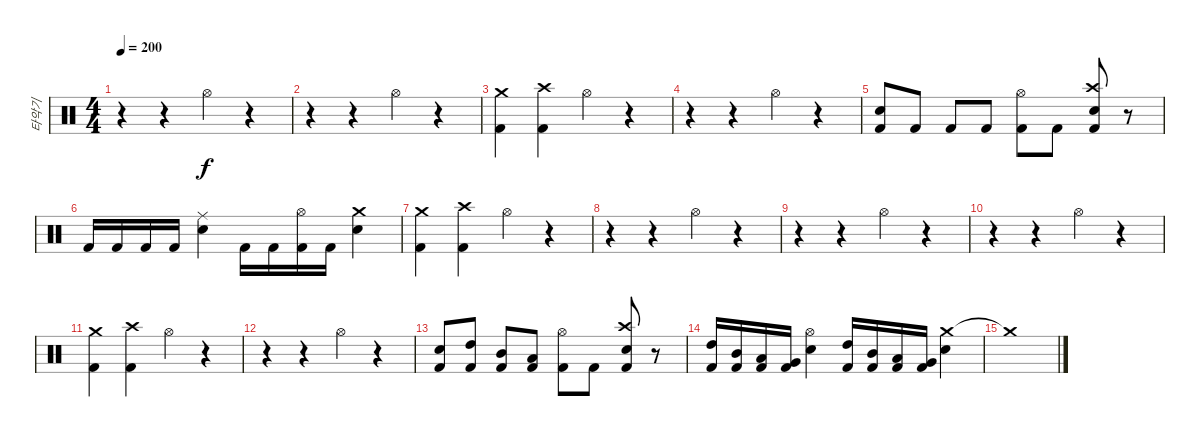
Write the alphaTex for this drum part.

\track ("타악기" "타악기") {instrument percussion}
\staff {score}
\articulation defaults
\ts (4 4)
\tempo 200
\clef neutral
\ks c
r.4{dy f} r.4 "Hi-Hat (open)".4 r.4 |
r.4 r.4 "Hi-Hat (open)".4 r.4 |
("Crash medium (hit)" "Kick (hit) 2").4 ("Crash high (hit)" "Kick (hit) 2").4 "Hi-Hat (open)".4 r.4 |
r.4 r.4 "Hi-Hat (open)".4 r.4 |
("Snare (hit) 2" "Kick (hit) 2").8 "Kick (hit) 2".8 "Kick (hit) 2".8 "Kick (hit) 2".8 ("Hi-Hat (open)" "Kick (hit) 2").8 "Kick (hit) 2".8 ("Crash high (hit)" "Snare (hit) 2" "Kick (hit) 2").8 r.8 |
"Kick (hit) 2".16 "Kick (hit) 2".16 "Kick (hit) 2".16 "Kick (hit) 2".16 ("Ride (middle)" "Snare (hit) 2").4 "Kick (hit) 2".16 "Kick (hit) 2".16 ("Hi-Hat (open)" "Kick (hit) 2").16 "Kick (hit) 2".16 ("Crash medium (hit)" "Snare (hit) 2").4 |
("Crash medium (hit)" "Kick (hit) 2").4 ("Crash high (hit)" "Kick (hit) 2").4 "Hi-Hat (open)".4 r.4 |
r.4 r.4 "Hi-Hat (open)".4 r.4 |
r.4 r.4 "Hi-Hat (open)".4 r.4 |
r.4 r.4 "Hi-Hat (open)".4 r.4 |
("Crash medium (hit)" "Kick (hit) 2").4 ("Crash high (hit)" "Kick (hit) 2").4 "Hi-Hat (open)".4 r.4 |
r.4 r.4 "Hi-Hat (open)".4 r.4 |
("Snare (hit) 2" "Kick (hit) 2").8 ("High Tom (hit)" "Kick (hit) 2").8 ("Mid Tom (hit)" "Kick (hit) 2").8 ("Low Tom (hit)" "Kick (hit) 2").8 ("Hi-Hat (open)" "Kick (hit) 2").8 "Kick (hit) 2".8 ("Crash high (hit)" "Snare (hit) 2" "Kick (hit) 2").8 r.8 |
("High Tom (hit)" "Kick (hit) 2").16 ("Mid Tom (hit)" "Kick (hit) 2").16 ("Low Tom (hit)" "Kick (hit) 2").16 ("Very Low Tom (hit)" "Kick (hit) 2").16 ("Hi-Hat (open)" "Snare (hit) 2").4 ("High Tom (hit)" "Kick (hit) 2").16 ("Mid Tom (hit)" "Kick (hit) 2").16 ("Low Tom (hit)" "Kick (hit) 2").16 ("Very Low Tom (hit)" "Kick (hit) 2").16 ("Crash medium (hit)" "Snare (hit) 2").4 |
"Crash medium (hit)"{t}.1
